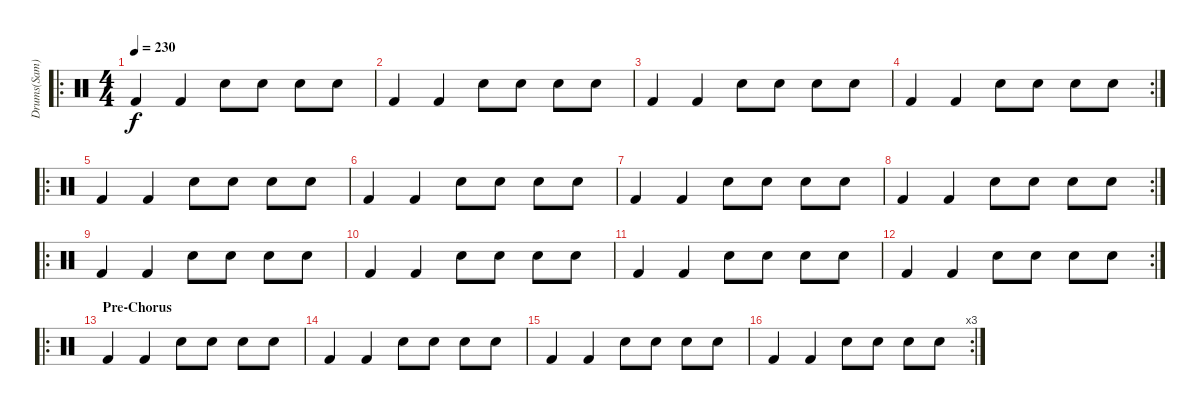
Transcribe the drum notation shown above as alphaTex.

\track ("Drums(Sam)" "Drums(Sam)") {instrument percussion}
\staff {score}
\articulation defaults
\ro
\ts (4 4)
\tempo 230
\clef neutral
\ks c "Kick (hit) 2".4{dy f} "Kick (hit) 2".4 "Snare (hit) 2".8 "Snare (hit) 2".8 "Snare (hit) 2".8 "Snare (hit) 2".8
|
"Kick (hit) 2".4 "Kick (hit) 2".4 "Snare (hit) 2".8 "Snare (hit) 2".8 "Snare (hit) 2".8 "Snare (hit) 2".8 |
"Kick (hit) 2".4 "Kick (hit) 2".4 "Snare (hit) 2".8 "Snare (hit) 2".8 "Snare (hit) 2".8 "Snare (hit) 2".8 |
\rc 2 "Kick (hit) 2".4 "Kick (hit) 2".4 "Snare (hit) 2".8 "Snare (hit) 2".8 "Snare (hit) 2".8 "Snare (hit) 2".8
|
\ro "Kick (hit) 2".4 "Kick (hit) 2".4 "Snare (hit) 2".8 "Snare (hit) 2".8 "Snare (hit) 2".8 "Snare (hit) 2".8
|
"Kick (hit) 2".4 "Kick (hit) 2".4 "Snare (hit) 2".8 "Snare (hit) 2".8 "Snare (hit) 2".8 "Snare (hit) 2".8 |
"Kick (hit) 2".4 "Kick (hit) 2".4 "Snare (hit) 2".8 "Snare (hit) 2".8 "Snare (hit) 2".8 "Snare (hit) 2".8 |
\rc 2 "Kick (hit) 2".4 "Kick (hit) 2".4 "Snare (hit) 2".8 "Snare (hit) 2".8 "Snare (hit) 2".8 "Snare (hit) 2".8
|
\ro "Kick (hit) 2".4 "Kick (hit) 2".4 "Snare (hit) 2".8 "Snare (hit) 2".8 "Snare (hit) 2".8 "Snare (hit) 2".8
|
"Kick (hit) 2".4 "Kick (hit) 2".4 "Snare (hit) 2".8 "Snare (hit) 2".8 "Snare (hit) 2".8 "Snare (hit) 2".8 |
"Kick (hit) 2".4 "Kick (hit) 2".4 "Snare (hit) 2".8 "Snare (hit) 2".8 "Snare (hit) 2".8 "Snare (hit) 2".8 |
\rc 2 "Kick (hit) 2".4 "Kick (hit) 2".4 "Snare (hit) 2".8 "Snare (hit) 2".8 "Snare (hit) 2".8 "Snare (hit) 2".8
|
\ro
\section ("" "Pre-Chorus")
"Kick (hit) 2".4 "Kick (hit) 2".4 "Snare (hit) 2".8 "Snare (hit) 2".8 "Snare (hit) 2".8 "Snare (hit) 2".8 |
"Kick (hit) 2".4 "Kick (hit) 2".4 "Snare (hit) 2".8 "Snare (hit) 2".8 "Snare (hit) 2".8 "Snare (hit) 2".8 |
"Kick (hit) 2".4 "Kick (hit) 2".4 "Snare (hit) 2".8 "Snare (hit) 2".8 "Snare (hit) 2".8 "Snare (hit) 2".8 |
\rc 3 "Kick (hit) 2".4 "Kick (hit) 2".4 "Snare (hit) 2".8 "Snare (hit) 2".8 "Snare (hit) 2".8 "Snare (hit) 2".8
